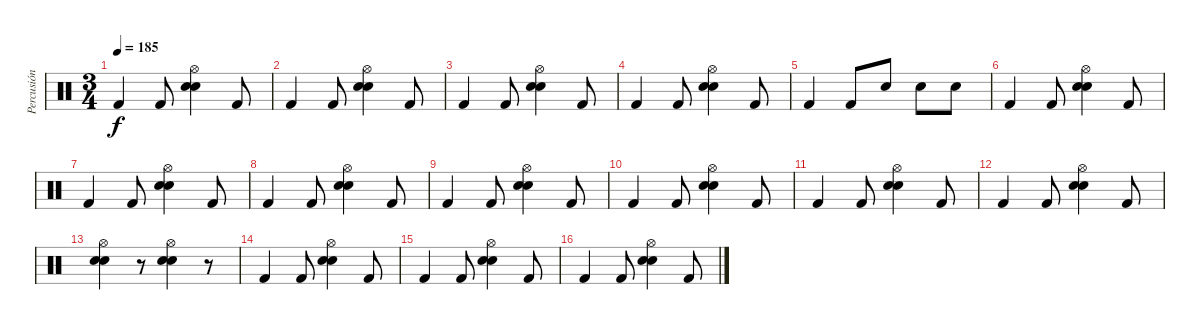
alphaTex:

\track ("Percusión" "Percusión") {instrument percussion}
\staff {score}
\articulation defaults
\ts (3 4)
\tempo 185
\clef neutral
\ks c "Kick (hit) 2".4{dy f} "Kick (hit) 2".8
("Hi-Hat (open)" "Electric Snare (hit)" "Snare (hit) 2").4 "Kick (hit) 2".8 |
"Kick (hit) 2".4 "Kick (hit) 2".8 ("Hi-Hat (open)" "Electric Snare (hit)" "Snare (hit) 2").4 "Kick (hit) 2".8 |
"Kick (hit) 2".4 "Kick (hit) 2".8 ("Hi-Hat (open)" "Electric Snare (hit)" "Snare (hit) 2").4 "Kick (hit) 2".8 |
"Kick (hit) 2".4 "Kick (hit) 2".8 ("Hi-Hat (open)" "Electric Snare (hit)" "Snare (hit) 2").4 "Kick (hit) 2".8 |
"Kick (hit) 2".4 "Kick (hit) 2".8 "Electric Snare (hit)".8 "Electric Snare (hit)".8 "Electric Snare (hit)".8 |
"Kick (hit) 2".4 "Kick (hit) 2".8 ("Hi-Hat (open)" "Electric Snare (hit)" "Snare (hit) 2").4 "Kick (hit) 2".8 |
"Kick (hit) 2".4 "Kick (hit) 2".8 ("Hi-Hat (open)" "Electric Snare (hit)" "Snare (hit) 2").4 "Kick (hit) 2".8 |
"Kick (hit) 2".4 "Kick (hit) 2".8 ("Hi-Hat (open)" "Electric Snare (hit)" "Snare (hit) 2").4 "Kick (hit) 2".8 |
"Kick (hit) 2".4 "Kick (hit) 2".8 ("Hi-Hat (open)" "Electric Snare (hit)" "Snare (hit) 2").4 "Kick (hit) 2".8 |
"Kick (hit) 2".4 "Kick (hit) 2".8 ("Hi-Hat (open)" "Electric Snare (hit)" "Snare (hit) 2").4 "Kick (hit) 2".8 |
"Kick (hit) 2".4 "Kick (hit) 2".8 ("Hi-Hat (open)" "Electric Snare (hit)" "Snare (hit) 2").4 "Kick (hit) 2".8 |
"Kick (hit) 2".4 "Kick (hit) 2".8 ("Hi-Hat (open)" "Electric Snare (hit)" "Snare (hit) 2").4 "Kick (hit) 2".8 |
("Hi-Hat (open)" "Electric Snare (hit)" "Snare (hit) 2").4 r.8 ("Hi-Hat (open)" "Electric Snare (hit)" "Snare (hit) 2").4 r.8 |
"Kick (hit) 2".4 "Kick (hit) 2".8 ("Hi-Hat (open)" "Electric Snare (hit)" "Snare (hit) 2").4 "Kick (hit) 2".8 |
"Kick (hit) 2".4 "Kick (hit) 2".8 ("Hi-Hat (open)" "Electric Snare (hit)" "Snare (hit) 2").4 "Kick (hit) 2".8 |
"Kick (hit) 2".4 "Kick (hit) 2".8 ("Hi-Hat (open)" "Electric Snare (hit)" "Snare (hit) 2").4 "Kick (hit) 2".8
